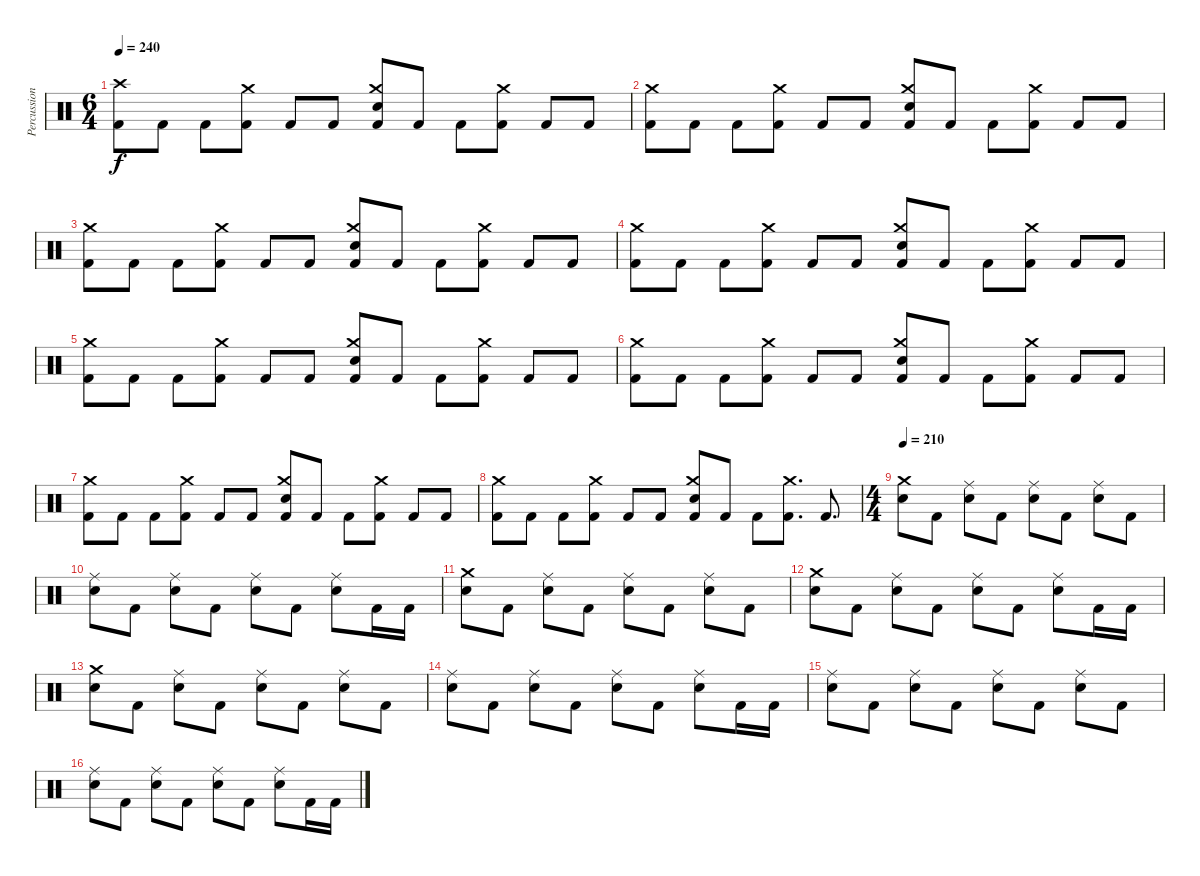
\track ("Percussion" "Percussion") {instrument percussion}
\staff {score}
\articulation defaults
\ts (6 4)
\tempo 240
\clef neutral
\ks c
("Crash high (hit)" "Kick (hit) 2").8{dy f} "Kick (hit) 2".8 "Kick (hit) 2".8 ("Crash medium (hit)" "Kick (hit) 2").8 "Kick (hit) 2".8 "Kick (hit) 2".8 ("Crash medium (hit)" "Electric Snare (hit)" "Kick (hit) 2").8 "Kick (hit) 2".8 "Kick (hit) 2".8 ("Crash medium (hit)" "Kick (hit) 2").8 "Kick (hit) 2".8 "Kick (hit) 2".8 |
("Crash medium (hit)" "Kick (hit) 2").8 "Kick (hit) 2".8 "Kick (hit) 2".8 ("Crash medium (hit)" "Kick (hit) 2").8 "Kick (hit) 2".8 "Kick (hit) 2".8 ("Crash medium (hit)" "Electric Snare (hit)" "Kick (hit) 2").8 "Kick (hit) 2".8 "Kick (hit) 2".8 ("Crash medium (hit)" "Kick (hit) 2").8 "Kick (hit) 2".8 "Kick (hit) 2".8 |
("Crash medium (hit)" "Kick (hit) 2").8 "Kick (hit) 2".8 "Kick (hit) 2".8 ("Crash medium (hit)" "Kick (hit) 2").8 "Kick (hit) 2".8 "Kick (hit) 2".8 ("Crash medium (hit)" "Electric Snare (hit)" "Kick (hit) 2").8 "Kick (hit) 2".8 "Kick (hit) 2".8 ("Crash medium (hit)" "Kick (hit) 2").8 "Kick (hit) 2".8 "Kick (hit) 2".8 |
("Crash medium (hit)" "Kick (hit) 2").8 "Kick (hit) 2".8 "Kick (hit) 2".8 ("Crash medium (hit)" "Kick (hit) 2").8 "Kick (hit) 2".8 "Kick (hit) 2".8 ("Crash medium (hit)" "Electric Snare (hit)" "Kick (hit) 2").8 "Kick (hit) 2".8 "Kick (hit) 2".8 ("Crash medium (hit)" "Kick (hit) 2").8 "Kick (hit) 2".8 "Kick (hit) 2".8 |
("Crash medium (hit)" "Kick (hit) 2").8 "Kick (hit) 2".8 "Kick (hit) 2".8 ("Crash medium (hit)" "Kick (hit) 2").8 "Kick (hit) 2".8 "Kick (hit) 2".8 ("Crash medium (hit)" "Electric Snare (hit)" "Kick (hit) 2").8 "Kick (hit) 2".8 "Kick (hit) 2".8 ("Crash medium (hit)" "Kick (hit) 2").8 "Kick (hit) 2".8 "Kick (hit) 2".8 |
("Crash medium (hit)" "Kick (hit) 2").8 "Kick (hit) 2".8 "Kick (hit) 2".8 ("Crash medium (hit)" "Kick (hit) 2").8 "Kick (hit) 2".8 "Kick (hit) 2".8 ("Crash medium (hit)" "Electric Snare (hit)" "Kick (hit) 2").8 "Kick (hit) 2".8 "Kick (hit) 2".8 ("Crash medium (hit)" "Kick (hit) 2").8 "Kick (hit) 2".8 "Kick (hit) 2".8 |
("Crash medium (hit)" "Kick (hit) 2").8 "Kick (hit) 2".8 "Kick (hit) 2".8 ("Crash medium (hit)" "Kick (hit) 2").8 "Kick (hit) 2".8 "Kick (hit) 2".8 ("Crash medium (hit)" "Electric Snare (hit)" "Kick (hit) 2").8 "Kick (hit) 2".8 "Kick (hit) 2".8 ("Crash medium (hit)" "Kick (hit) 2").8 "Kick (hit) 2".8 "Kick (hit) 2".8 |
("Crash medium (hit)" "Kick (hit) 2").8 "Kick (hit) 2".8 "Kick (hit) 2".8 ("Crash medium (hit)" "Kick (hit) 2").8 "Kick (hit) 2".8 "Kick (hit) 2".8 ("Crash medium (hit)" "Electric Snare (hit)" "Kick (hit) 2").8 "Kick (hit) 2".8 "Kick (hit) 2".8 ("Crash medium (hit)" "Kick (hit) 2").8{d} "Kick (hit) 2".8{d} |
\ts (4 4)
\tempo 210
("Crash medium (hit)" "Electric Snare (hit)").8 "Kick (hit) 2".8 ("Ride (middle)" "Electric Snare (hit)").8 "Kick (hit) 2".8 ("Ride (middle)" "Electric Snare (hit)").8 "Kick (hit) 2".8 ("Ride (middle)" "Electric Snare (hit)").8 "Kick (hit) 2".8 |
("Ride (middle)" "Electric Snare (hit)").8 "Kick (hit) 2".8 ("Ride (middle)" "Electric Snare (hit)").8 "Kick (hit) 2".8 ("Ride (middle)" "Electric Snare (hit)").8 "Kick (hit) 2".8 ("Ride (middle)" "Electric Snare (hit)").8 "Kick (hit) 2".16 "Kick (hit) 2".16 |
("Crash medium (hit)" "Electric Snare (hit)").8 "Kick (hit) 2".8 ("Ride (middle)" "Electric Snare (hit)").8 "Kick (hit) 2".8 ("Ride (middle)" "Electric Snare (hit)").8 "Kick (hit) 2".8 ("Ride (middle)" "Electric Snare (hit)").8 "Kick (hit) 2".8 |
("Crash medium (hit)" "Electric Snare (hit)").8 "Kick (hit) 2".8 ("Ride (middle)" "Electric Snare (hit)").8 "Kick (hit) 2".8 ("Ride (middle)" "Electric Snare (hit)").8 "Kick (hit) 2".8 ("Ride (middle)" "Electric Snare (hit)").8 "Kick (hit) 2".16 "Kick (hit) 2".16 |
("Crash medium (hit)" "Electric Snare (hit)").8 "Kick (hit) 2".8 ("Ride (middle)" "Electric Snare (hit)").8 "Kick (hit) 2".8 ("Ride (middle)" "Electric Snare (hit)").8 "Kick (hit) 2".8 ("Ride (middle)" "Electric Snare (hit)").8 "Kick (hit) 2".8 |
("Ride (middle)" "Electric Snare (hit)").8 "Kick (hit) 2".8 ("Ride (middle)" "Electric Snare (hit)").8 "Kick (hit) 2".8 ("Ride (middle)" "Electric Snare (hit)").8 "Kick (hit) 2".8 ("Ride (middle)" "Electric Snare (hit)").8 "Kick (hit) 2".16 "Kick (hit) 2".16 |
("Ride (middle)" "Electric Snare (hit)").8 "Kick (hit) 2".8 ("Ride (middle)" "Electric Snare (hit)").8 "Kick (hit) 2".8 ("Ride (middle)" "Electric Snare (hit)").8 "Kick (hit) 2".8 ("Ride (middle)" "Electric Snare (hit)").8 "Kick (hit) 2".8 |
("Ride (middle)" "Electric Snare (hit)").8 "Kick (hit) 2".8 ("Ride (middle)" "Electric Snare (hit)").8 "Kick (hit) 2".8 ("Ride (middle)" "Electric Snare (hit)").8 "Kick (hit) 2".8 ("Ride (middle)" "Electric Snare (hit)").8 "Kick (hit) 2".16 "Kick (hit) 2".16
